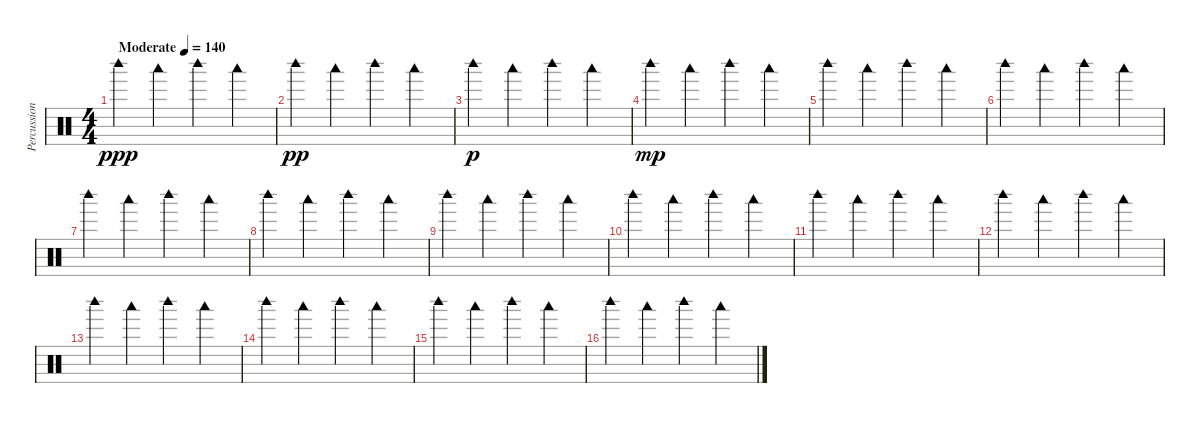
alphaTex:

\track ("Percussions" "Percussion") {instrument percussion}
\staff {score}
\articulation defaults
\ts (4 4)
\tempo (140 "Moderate")
\clef neutral
\ks c "Woodblock high (hit)".4{dy ppp} "Woodblock low (hit)".4 "Woodblock high (hit)".4 "Woodblock low (hit)".4
|
"Woodblock high (hit)".4{dy pp} "Woodblock low (hit)".4 "Woodblock high (hit)".4 "Woodblock low (hit)".4 |
"Woodblock high (hit)".4{dy p} "Woodblock low (hit)".4 "Woodblock high (hit)".4 "Woodblock low (hit)".4 |
"Woodblock high (hit)".4{dy mp} "Woodblock low (hit)".4 "Woodblock high (hit)".4 "Woodblock low (hit)".4 |
"Woodblock high (hit)".4 "Woodblock low (hit)".4 "Woodblock high (hit)".4 "Woodblock low (hit)".4 |
"Woodblock high (hit)".4 "Woodblock low (hit)".4 "Woodblock high (hit)".4 "Woodblock low (hit)".4 |
"Woodblock high (hit)".4 "Woodblock low (hit)".4 "Woodblock high (hit)".4 "Woodblock low (hit)".4 |
"Woodblock high (hit)".4 "Woodblock low (hit)".4 "Woodblock high (hit)".4 "Woodblock low (hit)".4 |
"Woodblock high (hit)".4 "Woodblock low (hit)".4 "Woodblock high (hit)".4 "Woodblock low (hit)".4 |
"Woodblock high (hit)".4 "Woodblock low (hit)".4 "Woodblock high (hit)".4 "Woodblock low (hit)".4 |
"Woodblock high (hit)".4 "Woodblock low (hit)".4 "Woodblock high (hit)".4 "Woodblock low (hit)".4 |
"Woodblock high (hit)".4 "Woodblock low (hit)".4 "Woodblock high (hit)".4 "Woodblock low (hit)".4 |
"Woodblock high (hit)".4 "Woodblock low (hit)".4 "Woodblock high (hit)".4 "Woodblock low (hit)".4 |
"Woodblock high (hit)".4 "Woodblock low (hit)".4 "Woodblock high (hit)".4 "Woodblock low (hit)".4 |
"Woodblock high (hit)".4 "Woodblock low (hit)".4 "Woodblock high (hit)".4 "Woodblock low (hit)".4 |
"Woodblock high (hit)".4 "Woodblock low (hit)".4 "Woodblock high (hit)".4 "Woodblock low (hit)".4
